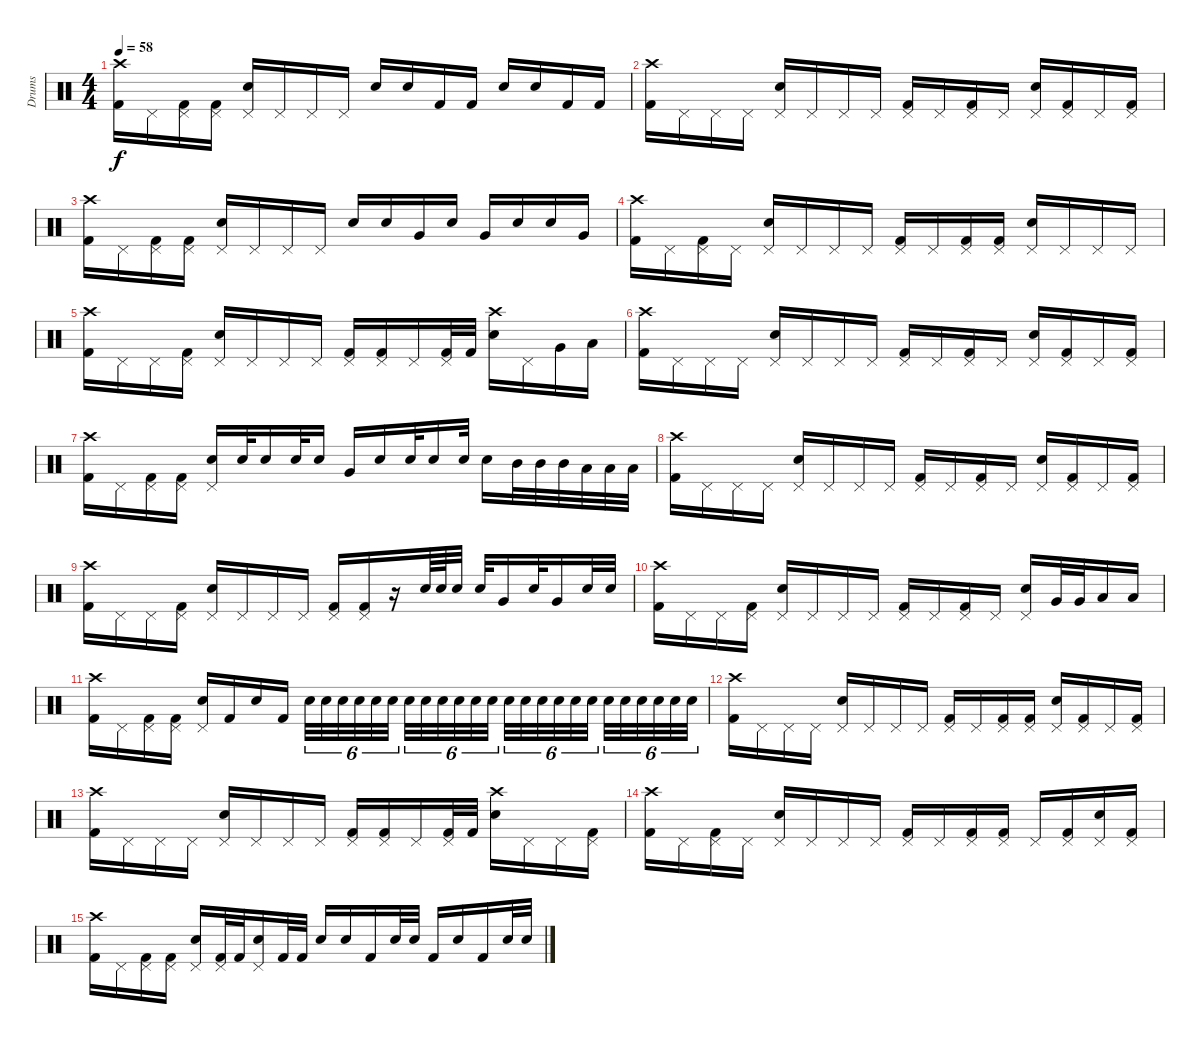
\track ("Drums" "Drums") {instrument percussion}
\staff {score}
\articulation defaults
\ts (4 4)
\tempo 58
\clef neutral
\ks c
("Crash high (hit)" "Kick (hit) 2").16{dy f} "Pedal Hi-Hat (hit)".16 ("Pedal Hi-Hat (hit)" "Kick (hit) 2").16 ("Pedal Hi-Hat (hit)" "Kick (hit) 2").16 ("Pedal Hi-Hat (hit)" "Electric Snare (hit)").16 "Pedal Hi-Hat (hit)".16 "Pedal Hi-Hat (hit)".16 "Pedal Hi-Hat (hit)".16 "Electric Snare (hit)".16 "Electric Snare (hit)".16 "Kick (hit) 2".16 "Kick (hit) 2".16 "Electric Snare (hit)".16 "Electric Snare (hit)".16 "Kick (hit) 2".16 "Kick (hit) 2".16 |
("Crash high (hit)" "Kick (hit) 2").16 "Pedal Hi-Hat (hit)".16 "Pedal Hi-Hat (hit)".16 "Pedal Hi-Hat (hit)".16 ("Pedal Hi-Hat (hit)" "Electric Snare (hit)").16 "Pedal Hi-Hat (hit)".16 "Pedal Hi-Hat (hit)".16 "Pedal Hi-Hat (hit)".16 ("Pedal Hi-Hat (hit)" "Kick (hit) 2").16 "Pedal Hi-Hat (hit)".16 ("Pedal Hi-Hat (hit)" "Kick (hit) 2").16 "Pedal Hi-Hat (hit)".16 ("Pedal Hi-Hat (hit)" "Electric Snare (hit)").16 ("Pedal Hi-Hat (hit)" "Kick (hit) 2").16 "Pedal Hi-Hat (hit)".16 ("Pedal Hi-Hat (hit)" "Kick (hit) 2").16 |
("Crash high (hit)" "Kick (hit) 2").16 "Pedal Hi-Hat (hit)".16 ("Pedal Hi-Hat (hit)" "Kick (hit) 2").16 ("Pedal Hi-Hat (hit)" "Kick (hit) 2").16 ("Pedal Hi-Hat (hit)" "Electric Snare (hit)").16 "Pedal Hi-Hat (hit)".16 "Pedal Hi-Hat (hit)".16 "Pedal Hi-Hat (hit)".16 "Electric Snare (hit)".16 "Electric Snare (hit)".16 "Very Low Tom (hit)".16 "Electric Snare (hit)".16 "Very Low Tom (hit)".16 "Electric Snare (hit)".16 "Electric Snare (hit)".16 "Very Low Tom (hit)".16 |
("Crash high (hit)" "Kick (hit) 2").16 "Pedal Hi-Hat (hit)".16 ("Pedal Hi-Hat (hit)" "Kick (hit) 2").16 "Pedal Hi-Hat (hit)".16 ("Pedal Hi-Hat (hit)" "Electric Snare (hit)").16 "Pedal Hi-Hat (hit)".16 "Pedal Hi-Hat (hit)".16 "Pedal Hi-Hat (hit)".16 ("Pedal Hi-Hat (hit)" "Kick (hit) 2").16 "Pedal Hi-Hat (hit)".16 ("Pedal Hi-Hat (hit)" "Kick (hit) 2").16 ("Pedal Hi-Hat (hit)" "Kick (hit) 2").16 ("Pedal Hi-Hat (hit)" "Electric Snare (hit)").16 "Pedal Hi-Hat (hit)".16 "Pedal Hi-Hat (hit)".16 "Pedal Hi-Hat (hit)".16 |
("Crash high (hit)" "Kick (hit) 2").16 "Pedal Hi-Hat (hit)".16 "Pedal Hi-Hat (hit)".16 ("Pedal Hi-Hat (hit)" "Kick (hit) 2").16 ("Pedal Hi-Hat (hit)" "Electric Snare (hit)").16 "Pedal Hi-Hat (hit)".16 "Pedal Hi-Hat (hit)".16 "Pedal Hi-Hat (hit)".16 ("Pedal Hi-Hat (hit)" "Kick (hit) 2").16 ("Pedal Hi-Hat (hit)" "Kick (hit) 2").16 "Pedal Hi-Hat (hit)".16 ("Pedal Hi-Hat (hit)" "Kick (hit) 2").32 "Kick (hit) 2".32 ("Crash high (hit)" "Electric Snare (hit)").16 "Pedal Hi-Hat (hit)".16 "Very Low Tom (hit)".16 "Low Floor Tom (hit)".16 |
("Crash high (hit)" "Kick (hit) 2").16 "Pedal Hi-Hat (hit)".16 "Pedal Hi-Hat (hit)".16 "Pedal Hi-Hat (hit)".16 ("Pedal Hi-Hat (hit)" "Electric Snare (hit)").16 "Pedal Hi-Hat (hit)".16 "Pedal Hi-Hat (hit)".16 "Pedal Hi-Hat (hit)".16 ("Pedal Hi-Hat (hit)" "Kick (hit) 2").16 "Pedal Hi-Hat (hit)".16 ("Pedal Hi-Hat (hit)" "Kick (hit) 2").16 "Pedal Hi-Hat (hit)".16 ("Pedal Hi-Hat (hit)" "Electric Snare (hit)").16 ("Pedal Hi-Hat (hit)" "Kick (hit) 2").16 "Pedal Hi-Hat (hit)".16 ("Pedal Hi-Hat (hit)" "Kick (hit) 2").16 |
("Crash high (hit)" "Kick (hit) 2").16 "Pedal Hi-Hat (hit)".16 ("Pedal Hi-Hat (hit)" "Kick (hit) 2").16 ("Pedal Hi-Hat (hit)" "Kick (hit) 2").16 ("Pedal Hi-Hat (hit)" "Electric Snare (hit)").16 "Electric Snare (hit)".32 "Electric Snare (hit)".16 "Electric Snare (hit)".32 "Electric Snare (hit)".16 "Very Low Tom (hit)".16 "Electric Snare (hit)".16 "Electric Snare (hit)".32 "Electric Snare (hit)".16 "Electric Snare (hit)".32 "Electric Snare (hit)".16 "Mid Tom (hit)".32 "Mid Tom (hit)".32 "Mid Tom (hit)".32 "Low Tom (hit)".32 "Low Tom (hit)".32 "Low Tom (hit)".32 |
("Crash high (hit)" "Kick (hit) 2").16 "Pedal Hi-Hat (hit)".16 "Pedal Hi-Hat (hit)".16 "Pedal Hi-Hat (hit)".16 ("Pedal Hi-Hat (hit)" "Electric Snare (hit)").16 "Pedal Hi-Hat (hit)".16 "Pedal Hi-Hat (hit)".16 "Pedal Hi-Hat (hit)".16 ("Pedal Hi-Hat (hit)" "Kick (hit) 2").16 "Pedal Hi-Hat (hit)".16 ("Pedal Hi-Hat (hit)" "Kick (hit) 2").16 "Pedal Hi-Hat (hit)".16 ("Pedal Hi-Hat (hit)" "Electric Snare (hit)").16 ("Pedal Hi-Hat (hit)" "Kick (hit) 2").16 "Pedal Hi-Hat (hit)".16 ("Pedal Hi-Hat (hit)" "Kick (hit) 2").16 |
("Crash high (hit)" "Kick (hit) 2").16 "Pedal Hi-Hat (hit)".16 "Pedal Hi-Hat (hit)".16 ("Pedal Hi-Hat (hit)" "Kick (hit) 2").16 ("Pedal Hi-Hat (hit)" "Electric Snare (hit)").16 "Pedal Hi-Hat (hit)".16 "Pedal Hi-Hat (hit)".16 "Pedal Hi-Hat (hit)".16 ("Pedal Hi-Hat (hit)" "Kick (hit) 2").16 ("Pedal Hi-Hat (hit)" "Kick (hit) 2").16 r.16 "Electric Snare (hit)".64 "Electric Snare (hit)".64 "Electric Snare (hit)".32 "Electric Snare (hit)".32 "Very Low Tom (hit)".16 "Electric Snare (hit)".32 "Very Low Tom (hit)".16 "Electric Snare (hit)".32 "Electric Snare (hit)".32 |
("Crash high (hit)" "Kick (hit) 2").16 "Pedal Hi-Hat (hit)".16 "Pedal Hi-Hat (hit)".16 ("Pedal Hi-Hat (hit)" "Kick (hit) 2").16 ("Pedal Hi-Hat (hit)" "Electric Snare (hit)").16 "Pedal Hi-Hat (hit)".16 "Pedal Hi-Hat (hit)".16 "Pedal Hi-Hat (hit)".16 ("Pedal Hi-Hat (hit)" "Kick (hit) 2").16 "Pedal Hi-Hat (hit)".16 ("Pedal Hi-Hat (hit)" "Kick (hit) 2").16 "Pedal Hi-Hat (hit)".16 ("Pedal Hi-Hat (hit)" "Electric Snare (hit)").16 "Very Low Tom (hit)".32 "Very Low Tom (hit)".32 "Low Floor Tom (hit)".16 "Low Floor Tom (hit)".16 |
("Crash high (hit)" "Kick (hit) 2").16 "Pedal Hi-Hat (hit)".16 ("Pedal Hi-Hat (hit)" "Kick (hit) 2").16 ("Pedal Hi-Hat (hit)" "Kick (hit) 2").16 ("Pedal Hi-Hat (hit)" "Electric Snare (hit)").16 "Kick (hit) 2".16 "Electric Snare (hit)".16 "Kick (hit) 2".16 "Electric Snare (hit)".32{tu (6 4)} "Electric Snare (hit)".32{tu (6 4)} "Electric Snare (hit)".32{tu (6 4)} "Electric Snare (hit)".32{tu (6 4)} "Electric Snare (hit)".32{tu (6 4)} "Electric Snare (hit)".32{tu (6 4)} "Electric Snare (hit)".32{tu (6 4)} "Electric Snare (hit)".32{tu (6 4)} "Electric Snare (hit)".32{tu (6 4)} "Electric Snare (hit)".32{tu (6 4)} "Electric Snare (hit)".32{tu (6 4)} "Electric Snare (hit)".32{tu (6 4)} "Electric Snare (hit)".32{tu (6 4)} "Electric Snare (hit)".32{tu (6 4)} "Electric Snare (hit)".32{tu (6 4)} "Electric Snare (hit)".32{tu (6 4)} "Electric Snare (hit)".32{tu (6 4)} "Electric Snare (hit)".32{tu (6 4)} "Electric Snare (hit)".32{tu (6 4)} "Electric Snare (hit)".32{tu (6 4)} "Electric Snare (hit)".32{tu (6 4)} "Electric Snare (hit)".32{tu (6 4)} "Electric Snare (hit)".32{tu (6 4)} "Electric Snare (hit)".32{tu (6 4)} |
("Crash high (hit)" "Kick (hit) 2").16 "Pedal Hi-Hat (hit)".16 "Pedal Hi-Hat (hit)".16 "Pedal Hi-Hat (hit)".16 ("Pedal Hi-Hat (hit)" "Electric Snare (hit)").16 "Pedal Hi-Hat (hit)".16 "Pedal Hi-Hat (hit)".16 "Pedal Hi-Hat (hit)".16 ("Pedal Hi-Hat (hit)" "Kick (hit) 2").16 "Pedal Hi-Hat (hit)".16 ("Pedal Hi-Hat (hit)" "Kick (hit) 2").16 ("Pedal Hi-Hat (hit)" "Kick (hit) 2").16 ("Pedal Hi-Hat (hit)" "Electric Snare (hit)").16 ("Pedal Hi-Hat (hit)" "Kick (hit) 2").16 "Pedal Hi-Hat (hit)".16 ("Pedal Hi-Hat (hit)" "Kick (hit) 2").16 |
("Crash high (hit)" "Kick (hit) 2").16 "Pedal Hi-Hat (hit)".16 "Pedal Hi-Hat (hit)".16 "Pedal Hi-Hat (hit)".16 ("Pedal Hi-Hat (hit)" "Electric Snare (hit)").16 "Pedal Hi-Hat (hit)".16 "Pedal Hi-Hat (hit)".16 "Pedal Hi-Hat (hit)".16 ("Pedal Hi-Hat (hit)" "Kick (hit) 2").16 ("Pedal Hi-Hat (hit)" "Kick (hit) 2").16 "Pedal Hi-Hat (hit)".16 ("Pedal Hi-Hat (hit)" "Kick (hit) 2").32 "Kick (hit) 2".32 ("Crash high (hit)" "Electric Snare (hit)").16 "Pedal Hi-Hat (hit)".16 "Pedal Hi-Hat (hit)".16 ("Pedal Hi-Hat (hit)" "Kick (hit) 2").16 |
("Crash high (hit)" "Kick (hit) 2").16 "Pedal Hi-Hat (hit)".16 ("Pedal Hi-Hat (hit)" "Kick (hit) 2").16 "Pedal Hi-Hat (hit)".16 ("Pedal Hi-Hat (hit)" "Electric Snare (hit)").16 "Pedal Hi-Hat (hit)".16 "Pedal Hi-Hat (hit)".16 "Pedal Hi-Hat (hit)".16 ("Pedal Hi-Hat (hit)" "Kick (hit) 2").16 "Pedal Hi-Hat (hit)".16 ("Pedal Hi-Hat (hit)" "Kick (hit) 2").16 ("Pedal Hi-Hat (hit)" "Kick (hit) 2").16 "Pedal Hi-Hat (hit)".16 ("Pedal Hi-Hat (hit)" "Kick (hit) 2").16 ("Pedal Hi-Hat (hit)" "Electric Snare (hit)").16 ("Pedal Hi-Hat (hit)" "Kick (hit) 2").16 |
("Crash high (hit)" "Kick (hit) 2").16 "Pedal Hi-Hat (hit)".16 ("Pedal Hi-Hat (hit)" "Kick (hit) 2").16 ("Pedal Hi-Hat (hit)" "Kick (hit) 2").16 ("Pedal Hi-Hat (hit)" "Electric Snare (hit)").16 ("Pedal Hi-Hat (hit)" "Kick (hit) 2").32 "Kick (hit) 2".32 ("Pedal Hi-Hat (hit)" "Electric Snare (hit)").16 "Kick (hit) 2".32 "Kick (hit) 2".32 "Electric Snare (hit)".16 "Electric Snare (hit)".16 "Kick (hit) 2".16 "Electric Snare (hit)".32 "Electric Snare (hit)".32 "Kick (hit) 2".16 "Electric Snare (hit)".16 "Kick (hit) 2".16 "Electric Snare (hit)".32 "Electric Snare (hit)".32
